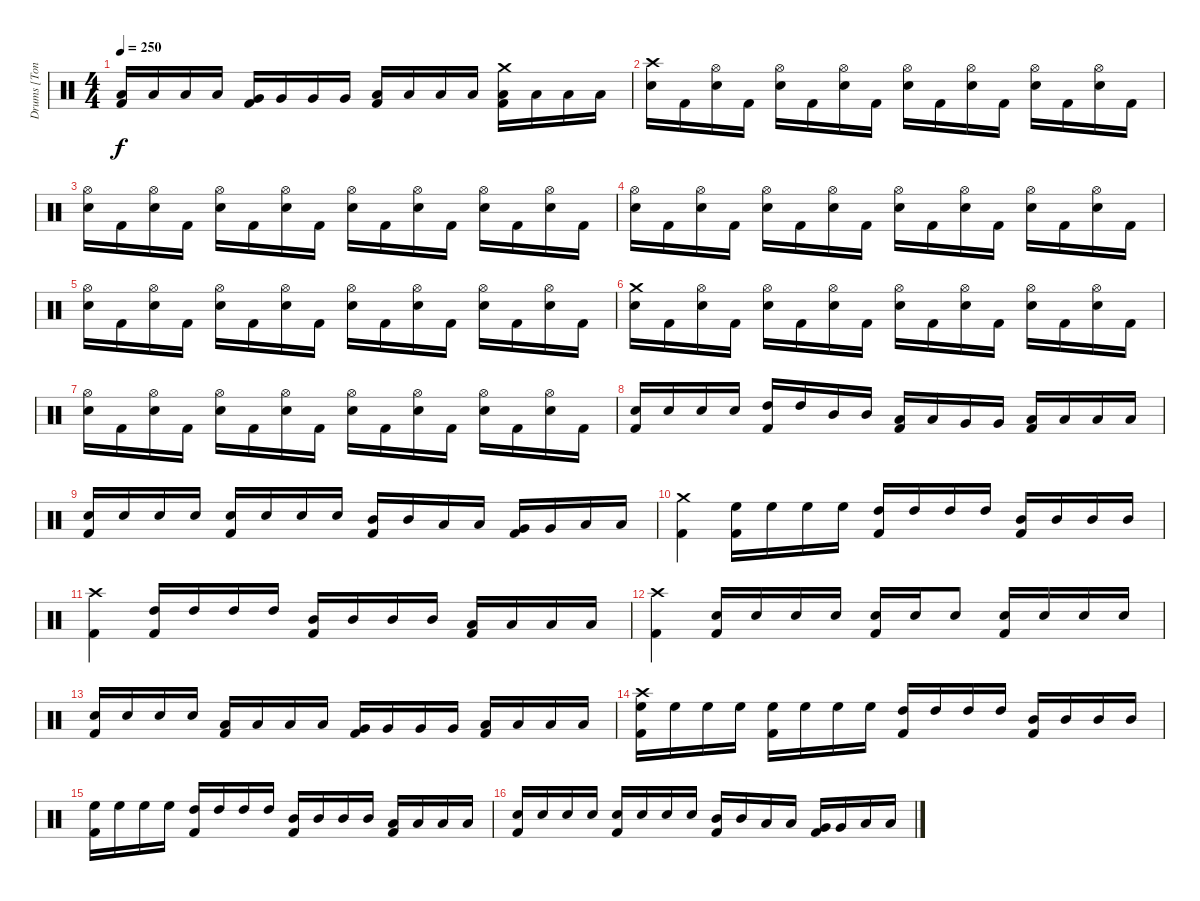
\track ("Drums [Tony Laureano]" "Drums [Ton") {instrument percussion}
\staff {score}
\articulation defaults
\ts (4 4)
\tempo 250
\clef neutral
\ks c
("Low Tom (hit)" "Kick (hit) 2").16{dy f} "Low Tom (hit)".16 "Low Tom (hit)".16 "Low Tom (hit)".16 ("Very Low Tom (hit)" "Kick (hit) 2").16 "Very Low Tom (hit)".16 "Very Low Tom (hit)".16 "Very Low Tom (hit)".16 ("Low Floor Tom (hit)" "Kick (hit) 2").16 "Low Floor Tom (hit)".16 "Low Floor Tom (hit)".16 "Low Floor Tom (hit)".16 ("Crash medium (hit)" "Low Floor Tom (hit)" "Kick (hit) 2").16 "Low Floor Tom (hit)".16 "Low Floor Tom (hit)".16 "Low Floor Tom (hit)".16 |
("Crash high (hit)" "Electric Snare (hit)").16 "Kick (hit) 2".16 ("Hi-Hat (open)" "Electric Snare (hit)").16 "Kick (hit) 2".16 ("Hi-Hat (open)" "Electric Snare (hit)").16 "Kick (hit) 2".16 ("Hi-Hat (open)" "Electric Snare (hit)").16 "Kick (hit) 2".16 ("Hi-Hat (open)" "Electric Snare (hit)").16 "Kick (hit) 2".16 ("Hi-Hat (open)" "Electric Snare (hit)").16 "Kick (hit) 2".16 ("Hi-Hat (open)" "Electric Snare (hit)").16 "Kick (hit) 2".16 ("Hi-Hat (open)" "Electric Snare (hit)").16 "Kick (hit) 2".16 |
("Hi-Hat (open)" "Electric Snare (hit)").16 "Kick (hit) 2".16 ("Hi-Hat (open)" "Electric Snare (hit)").16 "Kick (hit) 2".16 ("Hi-Hat (open)" "Electric Snare (hit)").16 "Kick (hit) 2".16 ("Hi-Hat (open)" "Electric Snare (hit)").16 "Kick (hit) 2".16 ("Hi-Hat (open)" "Electric Snare (hit)").16 "Kick (hit) 2".16 ("Hi-Hat (open)" "Electric Snare (hit)").16 "Kick (hit) 2".16 ("Hi-Hat (open)" "Electric Snare (hit)").16 "Kick (hit) 2".16 ("Hi-Hat (open)" "Electric Snare (hit)").16 "Kick (hit) 2".16 |
("Hi-Hat (open)" "Electric Snare (hit)").16 "Kick (hit) 2".16 ("Hi-Hat (open)" "Electric Snare (hit)").16 "Kick (hit) 2".16 ("Hi-Hat (open)" "Electric Snare (hit)").16 "Kick (hit) 2".16 ("Hi-Hat (open)" "Electric Snare (hit)").16 "Kick (hit) 2".16 ("Hi-Hat (open)" "Electric Snare (hit)").16 "Kick (hit) 2".16 ("Hi-Hat (open)" "Electric Snare (hit)").16 "Kick (hit) 2".16 ("Hi-Hat (open)" "Electric Snare (hit)").16 "Kick (hit) 2".16 ("Hi-Hat (open)" "Electric Snare (hit)").16 "Kick (hit) 2".16 |
("Hi-Hat (open)" "Electric Snare (hit)").16 "Kick (hit) 2".16 ("Hi-Hat (open)" "Electric Snare (hit)").16 "Kick (hit) 2".16 ("Hi-Hat (open)" "Electric Snare (hit)").16 "Kick (hit) 2".16 ("Hi-Hat (open)" "Electric Snare (hit)").16 "Kick (hit) 2".16 ("Hi-Hat (open)" "Electric Snare (hit)").16 "Kick (hit) 2".16 ("Hi-Hat (open)" "Electric Snare (hit)").16 "Kick (hit) 2".16 ("Hi-Hat (open)" "Electric Snare (hit)").16 "Kick (hit) 2".16 ("Hi-Hat (open)" "Electric Snare (hit)").16 "Kick (hit) 2".16 |
("Crash medium (hit)" "Electric Snare (hit)").16 "Kick (hit) 2".16 ("Hi-Hat (open)" "Electric Snare (hit)").16 "Kick (hit) 2".16 ("Hi-Hat (open)" "Electric Snare (hit)").16 "Kick (hit) 2".16 ("Hi-Hat (open)" "Electric Snare (hit)").16 "Kick (hit) 2".16 ("Hi-Hat (open)" "Electric Snare (hit)").16 "Kick (hit) 2".16 ("Hi-Hat (open)" "Electric Snare (hit)").16 "Kick (hit) 2".16 ("Hi-Hat (open)" "Electric Snare (hit)").16 "Kick (hit) 2".16 ("Hi-Hat (open)" "Electric Snare (hit)").16 "Kick (hit) 2".16 |
("Hi-Hat (open)" "Electric Snare (hit)").16 "Kick (hit) 2".16 ("Hi-Hat (open)" "Electric Snare (hit)").16 "Kick (hit) 2".16 ("Hi-Hat (open)" "Electric Snare (hit)").16 "Kick (hit) 2".16 ("Hi-Hat (open)" "Electric Snare (hit)").16 "Kick (hit) 2".16 ("Hi-Hat (open)" "Electric Snare (hit)").16 "Kick (hit) 2".16 ("Hi-Hat (open)" "Electric Snare (hit)").16 "Kick (hit) 2".16 ("Hi-Hat (open)" "Electric Snare (hit)").16 "Kick (hit) 2".16 ("Hi-Hat (open)" "Electric Snare (hit)").16 "Kick (hit) 2".16 |
("Electric Snare (hit)" "Kick (hit) 2").16 "Electric Snare (hit)".16 "Electric Snare (hit)".16 "Electric Snare (hit)".16 ("High Tom (hit)" "Kick (hit) 2").16 "High Tom (hit)".16 "Mid Tom (hit)".16 "Mid Tom (hit)".16 ("Low Tom (hit)" "Kick (hit) 2").16 "Low Tom (hit)".16 "Very Low Tom (hit)".16 "Very Low Tom (hit)".16 ("Low Floor Tom (hit)" "Kick (hit) 2").16 "Low Floor Tom (hit)".16 "Low Floor Tom (hit)".16 "Low Floor Tom (hit)".16 |
("Electric Snare (hit)" "Kick (hit) 2").16 "Electric Snare (hit)".16 "Electric Snare (hit)".16 "Electric Snare (hit)".16 ("Electric Snare (hit)" "Kick (hit) 2").16 "Electric Snare (hit)".16 "Electric Snare (hit)".16 "Electric Snare (hit)".16 ("Mid Tom (hit)" "Kick (hit) 2").16 "Mid Tom (hit)".16 "Low Tom (hit)".16 "Low Tom (hit)".16 ("Very Low Tom (hit)" "Kick (hit) 2").16 "Very Low Tom (hit)".16 "Low Floor Tom (hit)".16 "Low Floor Tom (hit)".16 |
("Crash medium (hit)" "Kick (hit) 2").4 ("High Floor Tom (hit)" "Kick (hit) 2").16 "High Floor Tom (hit)".16 "High Floor Tom (hit)".16 "High Floor Tom (hit)".16 ("High Tom (hit)" "Kick (hit) 2").16 "High Tom (hit)".16 "High Tom (hit)".16 "High Tom (hit)".16 ("Mid Tom (hit)" "Kick (hit) 2").16 "Mid Tom (hit)".16 "Mid Tom (hit)".16 "Mid Tom (hit)".16 |
("Crash high (hit)" "Kick (hit) 2").4 ("High Tom (hit)" "Kick (hit) 2").16 "High Tom (hit)".16 "High Tom (hit)".16 "High Tom (hit)".16 ("Mid Tom (hit)" "Kick (hit) 2").16 "Mid Tom (hit)".16 "Mid Tom (hit)".16 "Mid Tom (hit)".16 ("Low Tom (hit)" "Kick (hit) 2").16 "Low Tom (hit)".16 "Low Tom (hit)".16 "Low Tom (hit)".16 |
("Crash high (hit)" "Kick (hit) 2").4 ("Electric Snare (hit)" "Kick (hit) 2").16 "Electric Snare (hit)".16 "Electric Snare (hit)".16 "Electric Snare (hit)".16 ("Electric Snare (hit)" "Kick (hit) 2").16 "Electric Snare (hit)".16 "Electric Snare (hit)".8 ("Electric Snare (hit)" "Kick (hit) 2").16 "Electric Snare (hit)".16 "Electric Snare (hit)".16 "Electric Snare (hit)".16 |
("Electric Snare (hit)" "Kick (hit) 2").16 "Electric Snare (hit)".16 "Electric Snare (hit)".16 "Electric Snare (hit)".16 ("Low Tom (hit)" "Kick (hit) 2").16 "Low Tom (hit)".16 "Low Tom (hit)".16 "Low Tom (hit)".16 ("Very Low Tom (hit)" "Kick (hit) 2").16 "Very Low Tom (hit)".16 "Very Low Tom (hit)".16 "Very Low Tom (hit)".16 ("Low Floor Tom (hit)" "Kick (hit) 2").16 "Low Floor Tom (hit)".16 "Low Floor Tom (hit)".16 "Low Floor Tom (hit)".16 |
("Crash high (hit)" "High Floor Tom (hit)" "Kick (hit) 2").16 "High Floor Tom (hit)".16 "High Floor Tom (hit)".16 "High Floor Tom (hit)".16 ("High Floor Tom (hit)" "Kick (hit) 2").16 "High Floor Tom (hit)".16 "High Floor Tom (hit)".16 "High Floor Tom (hit)".16 ("High Tom (hit)" "Kick (hit) 2").16 "High Tom (hit)".16 "High Tom (hit)".16 "High Tom (hit)".16 ("Mid Tom (hit)" "Kick (hit) 2").16 "Mid Tom (hit)".16 "Mid Tom (hit)".16 "Mid Tom (hit)".16 |
("High Floor Tom (hit)" "Kick (hit) 2").16 "High Floor Tom (hit)".16 "High Floor Tom (hit)".16 "High Floor Tom (hit)".16 ("High Tom (hit)" "Kick (hit) 2").16 "High Tom (hit)".16 "High Tom (hit)".16 "High Tom (hit)".16 ("Mid Tom (hit)" "Kick (hit) 2").16 "Mid Tom (hit)".16 "Mid Tom (hit)".16 "Mid Tom (hit)".16 ("Low Tom (hit)" "Kick (hit) 2").16 "Low Tom (hit)".16 "Low Tom (hit)".16 "Low Tom (hit)".16 |
("Electric Snare (hit)" "Kick (hit) 2").16 "Electric Snare (hit)".16 "Electric Snare (hit)".16 "Electric Snare (hit)".16 ("Electric Snare (hit)" "Kick (hit) 2").16 "Electric Snare (hit)".16 "Electric Snare (hit)".16 "Electric Snare (hit)".16 ("Mid Tom (hit)" "Kick (hit) 2").16 "Mid Tom (hit)".16 "Low Tom (hit)".16 "Low Tom (hit)".16 ("Very Low Tom (hit)" "Kick (hit) 2").16 "Very Low Tom (hit)".16 "Low Floor Tom (hit)".16 "Low Floor Tom (hit)".16
